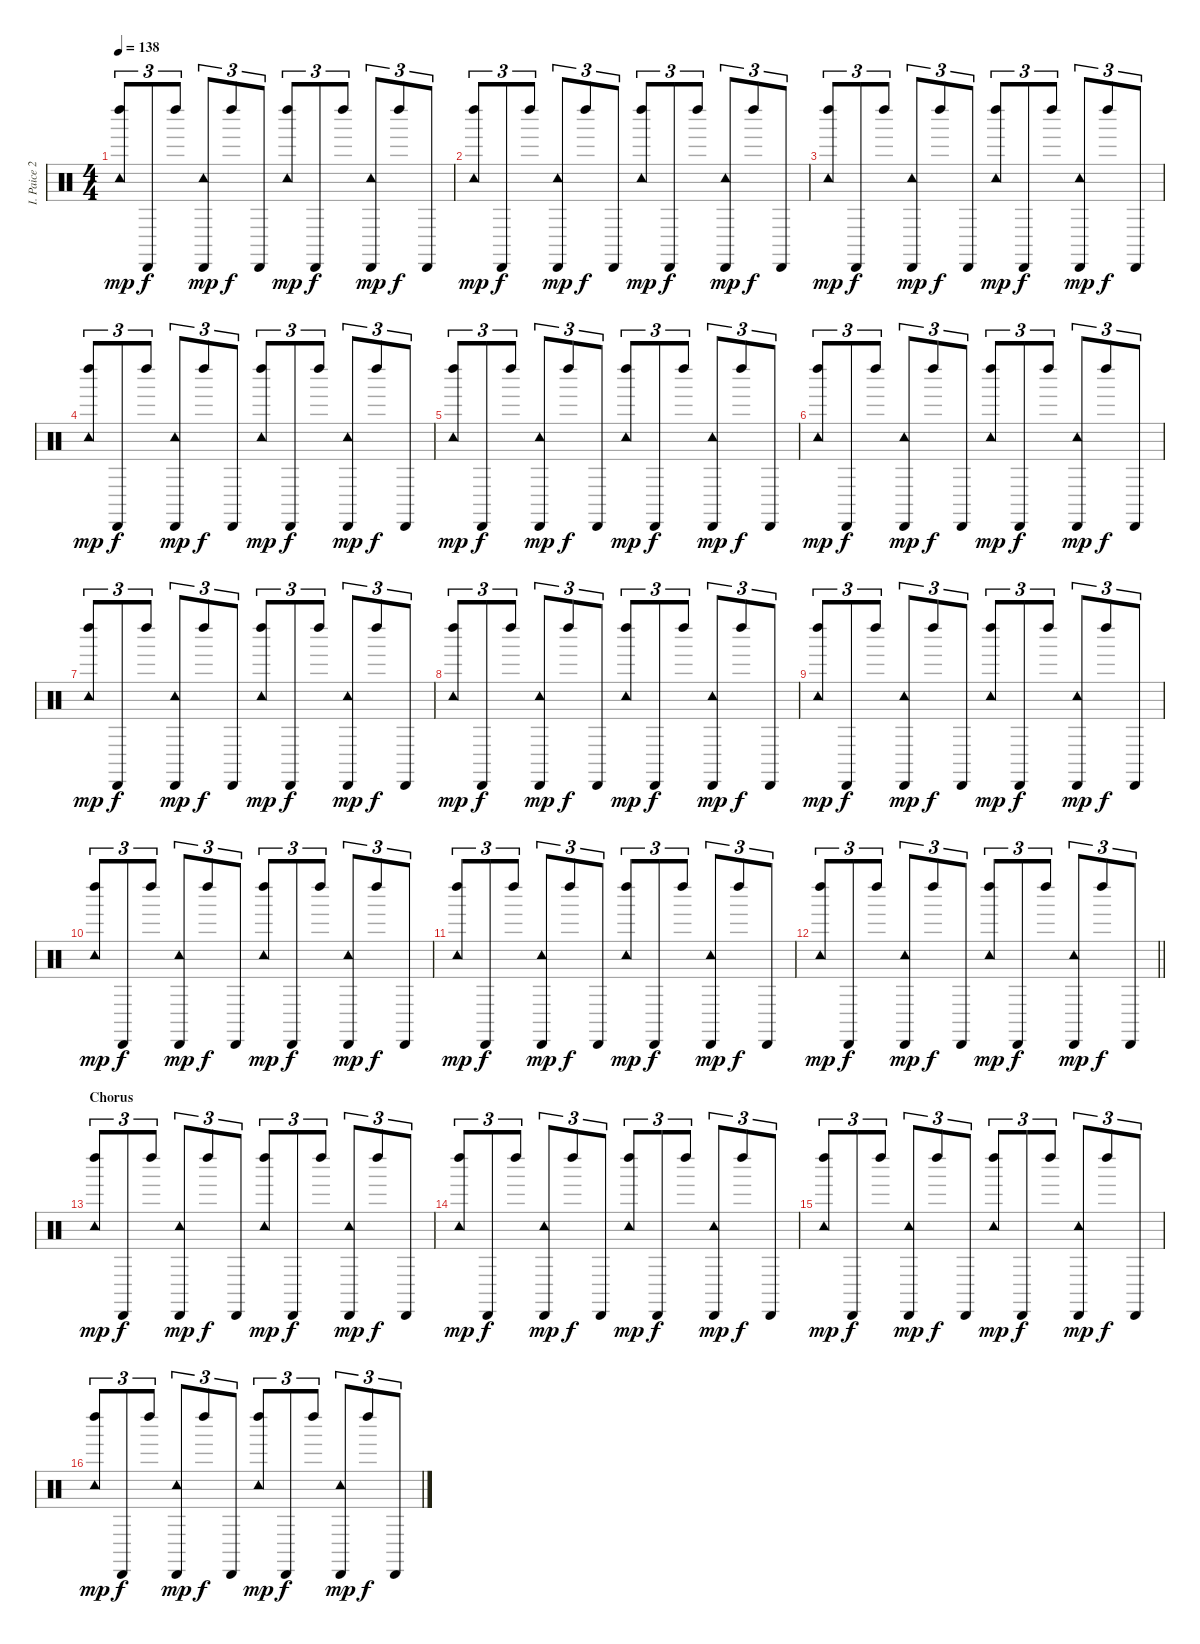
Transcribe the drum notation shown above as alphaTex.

\track ("I. Paice 2" "I. Paice 2") {instrument percussion}
\staff {score}
\articulation defaults
\ts (4 4)
\tempo 138
\clef neutral
\ks c
("Tambourine (hit)" "Left Maraca (hit)").8{tu (3 2) dy mp} "Cabasa (hit)".8{tu (3 2) dy f} "Left Maraca (hit)".8{tu (3 2)} ("Tambourine (hit)" "Cabasa (hit)").8{tu (3 2) dy mp} "Left Maraca (hit)".8{tu (3 2) dy f} "Cabasa (hit)".8{tu (3 2)} ("Tambourine (hit)" "Left Maraca (hit)").8{tu (3 2) dy mp} "Cabasa (hit)".8{tu (3 2) dy f} "Left Maraca (hit)".8{tu (3 2)} ("Tambourine (hit)" "Cabasa (hit)").8{tu (3 2) dy mp} "Left Maraca (hit)".8{tu (3 2) dy f} "Cabasa (hit)".8{tu (3 2)} |
("Tambourine (hit)" "Left Maraca (hit)").8{tu (3 2) dy mp} "Cabasa (hit)".8{tu (3 2) dy f} "Left Maraca (hit)".8{tu (3 2)} ("Tambourine (hit)" "Cabasa (hit)").8{tu (3 2) dy mp} "Left Maraca (hit)".8{tu (3 2) dy f} "Cabasa (hit)".8{tu (3 2)} ("Tambourine (hit)" "Left Maraca (hit)").8{tu (3 2) dy mp} "Cabasa (hit)".8{tu (3 2) dy f} "Left Maraca (hit)".8{tu (3 2)} ("Tambourine (hit)" "Cabasa (hit)").8{tu (3 2) dy mp} "Left Maraca (hit)".8{tu (3 2) dy f} "Cabasa (hit)".8{tu (3 2)} |
("Tambourine (hit)" "Left Maraca (hit)").8{tu (3 2) dy mp} "Cabasa (hit)".8{tu (3 2) dy f} "Left Maraca (hit)".8{tu (3 2)} ("Tambourine (hit)" "Cabasa (hit)").8{tu (3 2) dy mp} "Left Maraca (hit)".8{tu (3 2) dy f} "Cabasa (hit)".8{tu (3 2)} ("Tambourine (hit)" "Left Maraca (hit)").8{tu (3 2) dy mp} "Cabasa (hit)".8{tu (3 2) dy f} "Left Maraca (hit)".8{tu (3 2)} ("Tambourine (hit)" "Cabasa (hit)").8{tu (3 2) dy mp} "Left Maraca (hit)".8{tu (3 2) dy f} "Cabasa (hit)".8{tu (3 2)} |
("Tambourine (hit)" "Left Maraca (hit)").8{tu (3 2) dy mp} "Cabasa (hit)".8{tu (3 2) dy f} "Left Maraca (hit)".8{tu (3 2)} ("Tambourine (hit)" "Cabasa (hit)").8{tu (3 2) dy mp} "Left Maraca (hit)".8{tu (3 2) dy f} "Cabasa (hit)".8{tu (3 2)} ("Tambourine (hit)" "Left Maraca (hit)").8{tu (3 2) dy mp} "Cabasa (hit)".8{tu (3 2) dy f} "Left Maraca (hit)".8{tu (3 2)} ("Tambourine (hit)" "Cabasa (hit)").8{tu (3 2) dy mp} "Left Maraca (hit)".8{tu (3 2) dy f} "Cabasa (hit)".8{tu (3 2)} |
("Tambourine (hit)" "Left Maraca (hit)").8{tu (3 2) dy mp} "Cabasa (hit)".8{tu (3 2) dy f} "Left Maraca (hit)".8{tu (3 2)} ("Tambourine (hit)" "Cabasa (hit)").8{tu (3 2) dy mp} "Left Maraca (hit)".8{tu (3 2) dy f} "Cabasa (hit)".8{tu (3 2)} ("Tambourine (hit)" "Left Maraca (hit)").8{tu (3 2) dy mp} "Cabasa (hit)".8{tu (3 2) dy f} "Left Maraca (hit)".8{tu (3 2)} ("Tambourine (hit)" "Cabasa (hit)").8{tu (3 2) dy mp} "Left Maraca (hit)".8{tu (3 2) dy f} "Cabasa (hit)".8{tu (3 2)} |
("Tambourine (hit)" "Left Maraca (hit)").8{tu (3 2) dy mp} "Cabasa (hit)".8{tu (3 2) dy f} "Left Maraca (hit)".8{tu (3 2)} ("Tambourine (hit)" "Cabasa (hit)").8{tu (3 2) dy mp} "Left Maraca (hit)".8{tu (3 2) dy f} "Cabasa (hit)".8{tu (3 2)} ("Tambourine (hit)" "Left Maraca (hit)").8{tu (3 2) dy mp} "Cabasa (hit)".8{tu (3 2) dy f} "Left Maraca (hit)".8{tu (3 2)} ("Tambourine (hit)" "Cabasa (hit)").8{tu (3 2) dy mp} "Left Maraca (hit)".8{tu (3 2) dy f} "Cabasa (hit)".8{tu (3 2)} |
("Tambourine (hit)" "Left Maraca (hit)").8{tu (3 2) dy mp} "Cabasa (hit)".8{tu (3 2) dy f} "Left Maraca (hit)".8{tu (3 2)} ("Tambourine (hit)" "Cabasa (hit)").8{tu (3 2) dy mp} "Left Maraca (hit)".8{tu (3 2) dy f} "Cabasa (hit)".8{tu (3 2)} ("Tambourine (hit)" "Left Maraca (hit)").8{tu (3 2) dy mp} "Cabasa (hit)".8{tu (3 2) dy f} "Left Maraca (hit)".8{tu (3 2)} ("Tambourine (hit)" "Cabasa (hit)").8{tu (3 2) dy mp} "Left Maraca (hit)".8{tu (3 2) dy f} "Cabasa (hit)".8{tu (3 2)} |
("Tambourine (hit)" "Left Maraca (hit)").8{tu (3 2) dy mp} "Cabasa (hit)".8{tu (3 2) dy f} "Left Maraca (hit)".8{tu (3 2)} ("Tambourine (hit)" "Cabasa (hit)").8{tu (3 2) dy mp} "Left Maraca (hit)".8{tu (3 2) dy f} "Cabasa (hit)".8{tu (3 2)} ("Tambourine (hit)" "Left Maraca (hit)").8{tu (3 2) dy mp} "Cabasa (hit)".8{tu (3 2) dy f} "Left Maraca (hit)".8{tu (3 2)} ("Tambourine (hit)" "Cabasa (hit)").8{tu (3 2) dy mp} "Left Maraca (hit)".8{tu (3 2) dy f} "Cabasa (hit)".8{tu (3 2)} |
("Tambourine (hit)" "Left Maraca (hit)").8{tu (3 2) dy mp} "Cabasa (hit)".8{tu (3 2) dy f} "Left Maraca (hit)".8{tu (3 2)} ("Tambourine (hit)" "Cabasa (hit)").8{tu (3 2) dy mp} "Left Maraca (hit)".8{tu (3 2) dy f} "Cabasa (hit)".8{tu (3 2)} ("Tambourine (hit)" "Left Maraca (hit)").8{tu (3 2) dy mp} "Cabasa (hit)".8{tu (3 2) dy f} "Left Maraca (hit)".8{tu (3 2)} ("Tambourine (hit)" "Cabasa (hit)").8{tu (3 2) dy mp} "Left Maraca (hit)".8{tu (3 2) dy f} "Cabasa (hit)".8{tu (3 2)} |
("Tambourine (hit)" "Left Maraca (hit)").8{tu (3 2) dy mp} "Cabasa (hit)".8{tu (3 2) dy f} "Left Maraca (hit)".8{tu (3 2)} ("Tambourine (hit)" "Cabasa (hit)").8{tu (3 2) dy mp} "Left Maraca (hit)".8{tu (3 2) dy f} "Cabasa (hit)".8{tu (3 2)} ("Tambourine (hit)" "Left Maraca (hit)").8{tu (3 2) dy mp} "Cabasa (hit)".8{tu (3 2) dy f} "Left Maraca (hit)".8{tu (3 2)} ("Tambourine (hit)" "Cabasa (hit)").8{tu (3 2) dy mp} "Left Maraca (hit)".8{tu (3 2) dy f} "Cabasa (hit)".8{tu (3 2)} |
("Tambourine (hit)" "Left Maraca (hit)").8{tu (3 2) dy mp} "Cabasa (hit)".8{tu (3 2) dy f} "Left Maraca (hit)".8{tu (3 2)} ("Tambourine (hit)" "Cabasa (hit)").8{tu (3 2) dy mp} "Left Maraca (hit)".8{tu (3 2) dy f} "Cabasa (hit)".8{tu (3 2)} ("Tambourine (hit)" "Left Maraca (hit)").8{tu (3 2) dy mp} "Cabasa (hit)".8{tu (3 2) dy f} "Left Maraca (hit)".8{tu (3 2)} ("Tambourine (hit)" "Cabasa (hit)").8{tu (3 2) dy mp} "Left Maraca (hit)".8{tu (3 2) dy f} "Cabasa (hit)".8{tu (3 2)} |
\barLineRight lightlight
("Tambourine (hit)" "Left Maraca (hit)").8{tu (3 2) dy mp} "Cabasa (hit)".8{tu (3 2) dy f} "Left Maraca (hit)".8{tu (3 2)} ("Tambourine (hit)" "Cabasa (hit)").8{tu (3 2) dy mp} "Left Maraca (hit)".8{tu (3 2) dy f} "Cabasa (hit)".8{tu (3 2)} ("Tambourine (hit)" "Left Maraca (hit)").8{tu (3 2) dy mp} "Cabasa (hit)".8{tu (3 2) dy f} "Left Maraca (hit)".8{tu (3 2)} ("Tambourine (hit)" "Cabasa (hit)").8{tu (3 2) dy mp} "Left Maraca (hit)".8{tu (3 2) dy f} "Cabasa (hit)".8{tu (3 2)} |
\section ("" "Chorus")
("Tambourine (hit)" "Left Maraca (hit)").8{tu (3 2) dy mp} "Cabasa (hit)".8{tu (3 2) dy f} "Left Maraca (hit)".8{tu (3 2)} ("Tambourine (hit)" "Cabasa (hit)").8{tu (3 2) dy mp} "Left Maraca (hit)".8{tu (3 2) dy f} "Cabasa (hit)".8{tu (3 2)} ("Tambourine (hit)" "Left Maraca (hit)").8{tu (3 2) dy mp} "Cabasa (hit)".8{tu (3 2) dy f} "Left Maraca (hit)".8{tu (3 2)} ("Tambourine (hit)" "Cabasa (hit)").8{tu (3 2) dy mp} "Left Maraca (hit)".8{tu (3 2) dy f} "Cabasa (hit)".8{tu (3 2)} |
("Tambourine (hit)" "Left Maraca (hit)").8{tu (3 2) dy mp} "Cabasa (hit)".8{tu (3 2) dy f} "Left Maraca (hit)".8{tu (3 2)} ("Tambourine (hit)" "Cabasa (hit)").8{tu (3 2) dy mp} "Left Maraca (hit)".8{tu (3 2) dy f} "Cabasa (hit)".8{tu (3 2)} ("Tambourine (hit)" "Left Maraca (hit)").8{tu (3 2) dy mp} "Cabasa (hit)".8{tu (3 2) dy f} "Left Maraca (hit)".8{tu (3 2)} ("Tambourine (hit)" "Cabasa (hit)").8{tu (3 2) dy mp} "Left Maraca (hit)".8{tu (3 2) dy f} "Cabasa (hit)".8{tu (3 2)} |
("Tambourine (hit)" "Left Maraca (hit)").8{tu (3 2) dy mp} "Cabasa (hit)".8{tu (3 2) dy f} "Left Maraca (hit)".8{tu (3 2)} ("Tambourine (hit)" "Cabasa (hit)").8{tu (3 2) dy mp} "Left Maraca (hit)".8{tu (3 2) dy f} "Cabasa (hit)".8{tu (3 2)} ("Tambourine (hit)" "Left Maraca (hit)").8{tu (3 2) dy mp} "Cabasa (hit)".8{tu (3 2) dy f} "Left Maraca (hit)".8{tu (3 2)} ("Tambourine (hit)" "Cabasa (hit)").8{tu (3 2) dy mp} "Left Maraca (hit)".8{tu (3 2) dy f} "Cabasa (hit)".8{tu (3 2)} |
("Tambourine (hit)" "Left Maraca (hit)").8{tu (3 2) dy mp} "Cabasa (hit)".8{tu (3 2) dy f} "Left Maraca (hit)".8{tu (3 2)} ("Tambourine (hit)" "Cabasa (hit)").8{tu (3 2) dy mp} "Left Maraca (hit)".8{tu (3 2) dy f} "Cabasa (hit)".8{tu (3 2)} ("Tambourine (hit)" "Left Maraca (hit)").8{tu (3 2) dy mp} "Cabasa (hit)".8{tu (3 2) dy f} "Left Maraca (hit)".8{tu (3 2)} ("Tambourine (hit)" "Cabasa (hit)").8{tu (3 2) dy mp} "Left Maraca (hit)".8{tu (3 2) dy f} "Cabasa (hit)".8{tu (3 2)}
